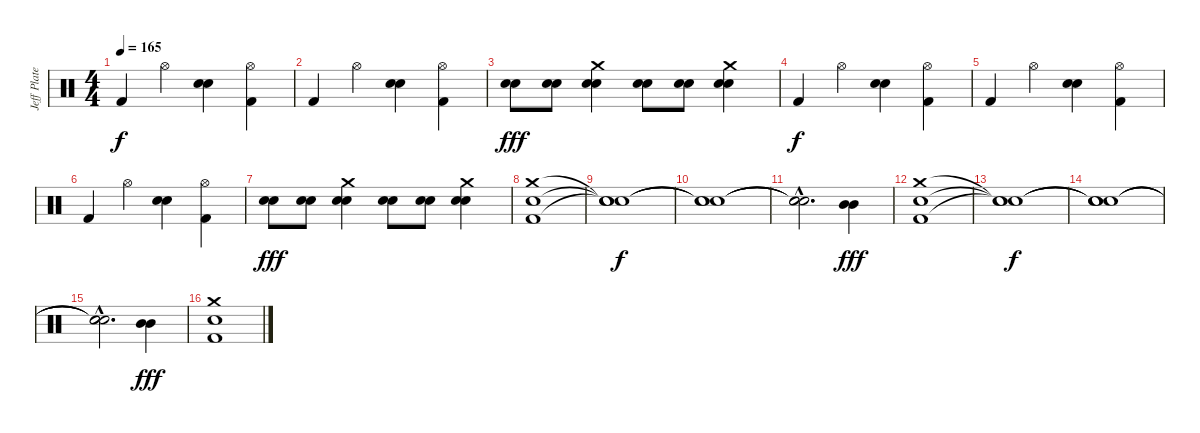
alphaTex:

\track ("Jeff Plate" "Jeff Plate") {instrument percussion}
\staff {score}
\articulation defaults
\ts (4 4)
\tempo 165
\clef neutral
\ks c "Kick (hit) 2".4{dy f} "Hi-Hat (open)".4
("Electric Snare (hit)" "Electric Snare (hit)").4 ("Hi-Hat (open)" "Kick (hit) 2").4 |
"Kick (hit) 2".4 "Hi-Hat (open)".4 ("Electric Snare (hit)" "Electric Snare (hit)").4 ("Hi-Hat (open)" "Kick (hit) 2").4 |
("Electric Snare (hit)" "Electric Snare (hit)").8{dy fff} ("Electric Snare (hit)" "Electric Snare (hit)").8 ("Crash medium (hit)" "Electric Snare (hit)" "Electric Snare (hit)").4 ("Electric Snare (hit)" "Electric Snare (hit)").8 ("Electric Snare (hit)" "Electric Snare (hit)").8 ("Crash medium (hit)" "Electric Snare (hit)" "Electric Snare (hit)").4 |
"Kick (hit) 2".4{dy f} "Hi-Hat (open)".4 ("Electric Snare (hit)" "Electric Snare (hit)").4 ("Hi-Hat (open)" "Kick (hit) 2").4 |
"Kick (hit) 2".4 "Hi-Hat (open)".4 ("Electric Snare (hit)" "Electric Snare (hit)").4 ("Hi-Hat (open)" "Kick (hit) 2").4 |
"Kick (hit) 2".4 "Hi-Hat (open)".4 ("Electric Snare (hit)" "Electric Snare (hit)").4 ("Hi-Hat (open)" "Kick (hit) 2").4 |
("Electric Snare (hit)" "Electric Snare (hit)").8{dy fff} ("Electric Snare (hit)" "Electric Snare (hit)").8 ("Crash medium (hit)" "Electric Snare (hit)" "Electric Snare (hit)").4 ("Electric Snare (hit)" "Electric Snare (hit)").8 ("Electric Snare (hit)" "Electric Snare (hit)").8 ("Crash medium (hit)" "Electric Snare (hit)" "Electric Snare (hit)").4 |
("Crash medium (hit)" "Electric Snare (hit)" "Kick (hit) 2").1 |
("Snare (hit)"{t} "Snare (hit)"{t} "Snare (hit)"{t}).1{dy f} |
("Snare (hit)"{t} "Snare (hit)"{t} "Snare (hit)"{t}).1 |
("Snare (hit)"{hac t} "Snare (hit)"{hac t} "Snare (hit)"{hac t}).2{d} ("Mid Tom (hit)" "Mid Tom (hit)").4{dy fff} |
("Crash medium (hit)" "Electric Snare (hit)" "Kick (hit) 2").1 |
("Snare (hit)"{t} "Snare (hit)"{t} "Snare (hit)"{t}).1{dy f} |
("Snare (hit)"{t} "Snare (hit)"{t} "Snare (hit)"{t}).1 |
("Snare (hit)"{hac t} "Snare (hit)"{hac t} "Snare (hit)"{hac t}).2{d} ("Mid Tom (hit)" "Mid Tom (hit)").4{dy fff} |
("Crash medium (hit)" "Electric Snare (hit)" "Kick (hit) 2").1
